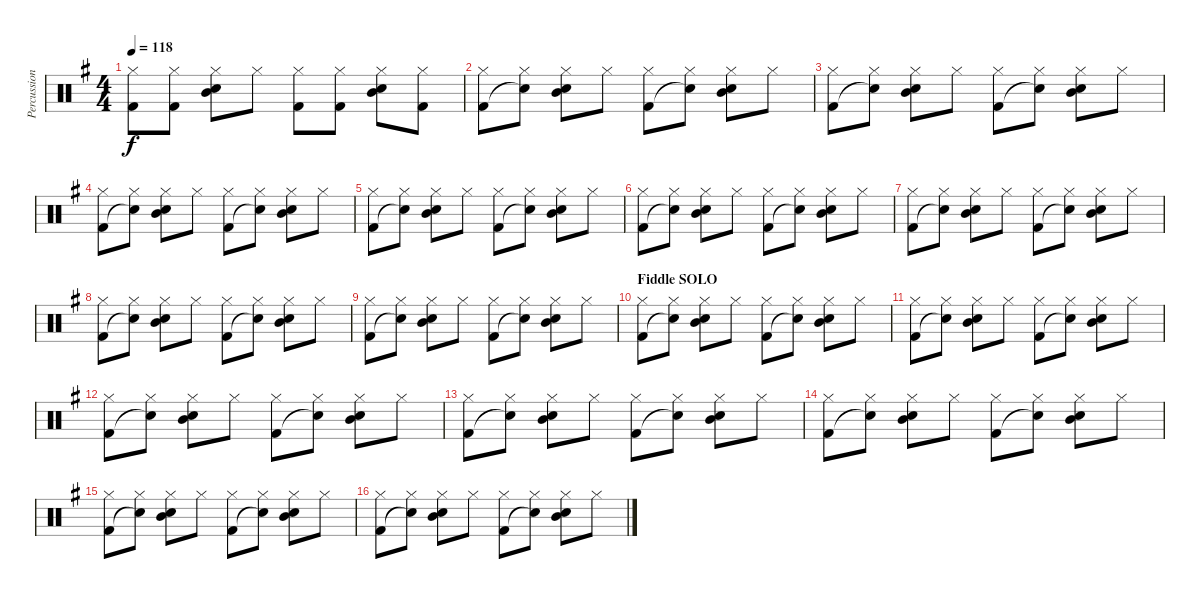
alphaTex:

\track ("Percussion" "Percussion") {instrument percussion}
\staff {score}
\articulation defaults
\ts (4 4)
\tempo 118
\clef neutral
\ks g
("Hi-Hat (closed)" "Kick (hit) 2").8{dy f} ("Hi-Hat (closed)" "Kick (hit) 2").8 ("Hi-Hat (closed)" "Snare (hit) 2" "Mid Tom (hit)").8 "Hi-Hat (closed)".8 ("Hi-Hat (closed)" "Kick (hit) 2").8 ("Hi-Hat (closed)" "Kick (hit) 2").8 ("Hi-Hat (closed)" "Snare (hit) 2" "Mid Tom (hit)").8 ("Hi-Hat (closed)" "Kick (hit) 2").8 |
("Hi-Hat (closed)" "Kick (hit) 2").8 ("Hi-Hat (closed)" "Snare (hit)"{t}).8 ("Hi-Hat (closed)" "Snare (hit) 2" "Mid Tom (hit)").8 "Hi-Hat (closed)".8 ("Hi-Hat (closed)" "Kick (hit) 2").8 ("Hi-Hat (closed)" "Snare (hit)"{t}).8 ("Hi-Hat (closed)" "Snare (hit) 2" "Mid Tom (hit)").8 "Hi-Hat (closed)".8 |
("Hi-Hat (closed)" "Kick (hit) 2").8 ("Hi-Hat (closed)" "Snare (hit)"{t}).8 ("Hi-Hat (closed)" "Snare (hit) 2" "Mid Tom (hit)").8 "Hi-Hat (closed)".8 ("Hi-Hat (closed)" "Kick (hit) 2").8 ("Hi-Hat (closed)" "Snare (hit)"{t}).8 ("Hi-Hat (closed)" "Snare (hit) 2" "Mid Tom (hit)").8 "Hi-Hat (closed)".8 |
("Hi-Hat (closed)" "Kick (hit) 2").8 ("Hi-Hat (closed)" "Snare (hit)"{t}).8 ("Hi-Hat (closed)" "Snare (hit) 2" "Mid Tom (hit)").8 "Hi-Hat (closed)".8 ("Hi-Hat (closed)" "Kick (hit) 2").8 ("Hi-Hat (closed)" "Snare (hit)"{t}).8 ("Hi-Hat (closed)" "Snare (hit) 2" "Mid Tom (hit)").8 "Hi-Hat (closed)".8 |
("Hi-Hat (closed)" "Kick (hit) 2").8 ("Hi-Hat (closed)" "Snare (hit)"{t}).8 ("Hi-Hat (closed)" "Snare (hit) 2" "Mid Tom (hit)").8 "Hi-Hat (closed)".8 ("Hi-Hat (closed)" "Kick (hit) 2").8 ("Hi-Hat (closed)" "Snare (hit)"{t}).8 ("Hi-Hat (closed)" "Snare (hit) 2" "Mid Tom (hit)").8 "Hi-Hat (closed)".8 |
("Hi-Hat (closed)" "Kick (hit) 2").8 ("Hi-Hat (closed)" "Snare (hit)"{t}).8 ("Hi-Hat (closed)" "Snare (hit) 2" "Mid Tom (hit)").8 "Hi-Hat (closed)".8 ("Hi-Hat (closed)" "Kick (hit) 2").8 ("Hi-Hat (closed)" "Snare (hit)"{t}).8 ("Hi-Hat (closed)" "Snare (hit) 2" "Mid Tom (hit)").8 "Hi-Hat (closed)".8 |
("Hi-Hat (closed)" "Kick (hit) 2").8 ("Hi-Hat (closed)" "Snare (hit)"{t}).8 ("Hi-Hat (closed)" "Snare (hit) 2" "Mid Tom (hit)").8 "Hi-Hat (closed)".8 ("Hi-Hat (closed)" "Kick (hit) 2").8 ("Hi-Hat (closed)" "Snare (hit)"{t}).8 ("Hi-Hat (closed)" "Snare (hit) 2" "Mid Tom (hit)").8 "Hi-Hat (closed)".8 |
("Hi-Hat (closed)" "Kick (hit) 2").8 ("Hi-Hat (closed)" "Snare (hit)"{t}).8 ("Hi-Hat (closed)" "Snare (hit) 2" "Mid Tom (hit)").8 "Hi-Hat (closed)".8 ("Hi-Hat (closed)" "Kick (hit) 2").8 ("Hi-Hat (closed)" "Snare (hit)"{t}).8 ("Hi-Hat (closed)" "Snare (hit) 2" "Mid Tom (hit)").8 "Hi-Hat (closed)".8 |
("Hi-Hat (closed)" "Kick (hit) 2").8 ("Hi-Hat (closed)" "Snare (hit)"{t}).8 ("Hi-Hat (closed)" "Snare (hit) 2" "Mid Tom (hit)").8 "Hi-Hat (closed)".8 ("Hi-Hat (closed)" "Kick (hit) 2").8 ("Hi-Hat (closed)" "Snare (hit)"{t}).8 ("Hi-Hat (closed)" "Snare (hit) 2" "Mid Tom (hit)").8 "Hi-Hat (closed)".8 |
\section ("" "Fiddle SOLO")
("Hi-Hat (closed)" "Kick (hit) 2").8 ("Hi-Hat (closed)" "Snare (hit)"{t}).8 ("Hi-Hat (closed)" "Snare (hit) 2" "Mid Tom (hit)").8 "Hi-Hat (closed)".8 ("Hi-Hat (closed)" "Kick (hit) 2").8 ("Hi-Hat (closed)" "Snare (hit)"{t}).8 ("Hi-Hat (closed)" "Snare (hit) 2" "Mid Tom (hit)").8 "Hi-Hat (closed)".8 |
("Hi-Hat (closed)" "Kick (hit) 2").8 ("Hi-Hat (closed)" "Snare (hit)"{t}).8 ("Hi-Hat (closed)" "Snare (hit) 2" "Mid Tom (hit)").8 "Hi-Hat (closed)".8 ("Hi-Hat (closed)" "Kick (hit) 2").8 ("Hi-Hat (closed)" "Snare (hit)"{t}).8 ("Hi-Hat (closed)" "Snare (hit) 2" "Mid Tom (hit)").8 "Hi-Hat (closed)".8 |
("Hi-Hat (closed)" "Kick (hit) 2").8 ("Hi-Hat (closed)" "Snare (hit)"{t}).8 ("Hi-Hat (closed)" "Snare (hit) 2" "Mid Tom (hit)").8 "Hi-Hat (closed)".8 ("Hi-Hat (closed)" "Kick (hit) 2").8 ("Hi-Hat (closed)" "Snare (hit)"{t}).8 ("Hi-Hat (closed)" "Snare (hit) 2" "Mid Tom (hit)").8 "Hi-Hat (closed)".8 |
("Hi-Hat (closed)" "Kick (hit) 2").8 ("Hi-Hat (closed)" "Snare (hit)"{t}).8 ("Hi-Hat (closed)" "Snare (hit) 2" "Mid Tom (hit)").8 "Hi-Hat (closed)".8 ("Hi-Hat (closed)" "Kick (hit) 2").8 ("Hi-Hat (closed)" "Snare (hit)"{t}).8 ("Hi-Hat (closed)" "Snare (hit) 2" "Mid Tom (hit)").8 "Hi-Hat (closed)".8 |
("Hi-Hat (closed)" "Kick (hit) 2").8 ("Hi-Hat (closed)" "Snare (hit)"{t}).8 ("Hi-Hat (closed)" "Snare (hit) 2" "Mid Tom (hit)").8 "Hi-Hat (closed)".8 ("Hi-Hat (closed)" "Kick (hit) 2").8 ("Hi-Hat (closed)" "Snare (hit)"{t}).8 ("Hi-Hat (closed)" "Snare (hit) 2" "Mid Tom (hit)").8 "Hi-Hat (closed)".8 |
("Hi-Hat (closed)" "Kick (hit) 2").8 ("Hi-Hat (closed)" "Snare (hit)"{t}).8 ("Hi-Hat (closed)" "Snare (hit) 2" "Mid Tom (hit)").8 "Hi-Hat (closed)".8 ("Hi-Hat (closed)" "Kick (hit) 2").8 ("Hi-Hat (closed)" "Snare (hit)"{t}).8 ("Hi-Hat (closed)" "Snare (hit) 2" "Mid Tom (hit)").8 "Hi-Hat (closed)".8 |
("Hi-Hat (closed)" "Kick (hit) 2").8 ("Hi-Hat (closed)" "Snare (hit)"{t}).8 ("Hi-Hat (closed)" "Snare (hit) 2" "Mid Tom (hit)").8 "Hi-Hat (closed)".8 ("Hi-Hat (closed)" "Kick (hit) 2").8 ("Hi-Hat (closed)" "Snare (hit)"{t}).8 ("Hi-Hat (closed)" "Snare (hit) 2" "Mid Tom (hit)").8 "Hi-Hat (closed)".8
